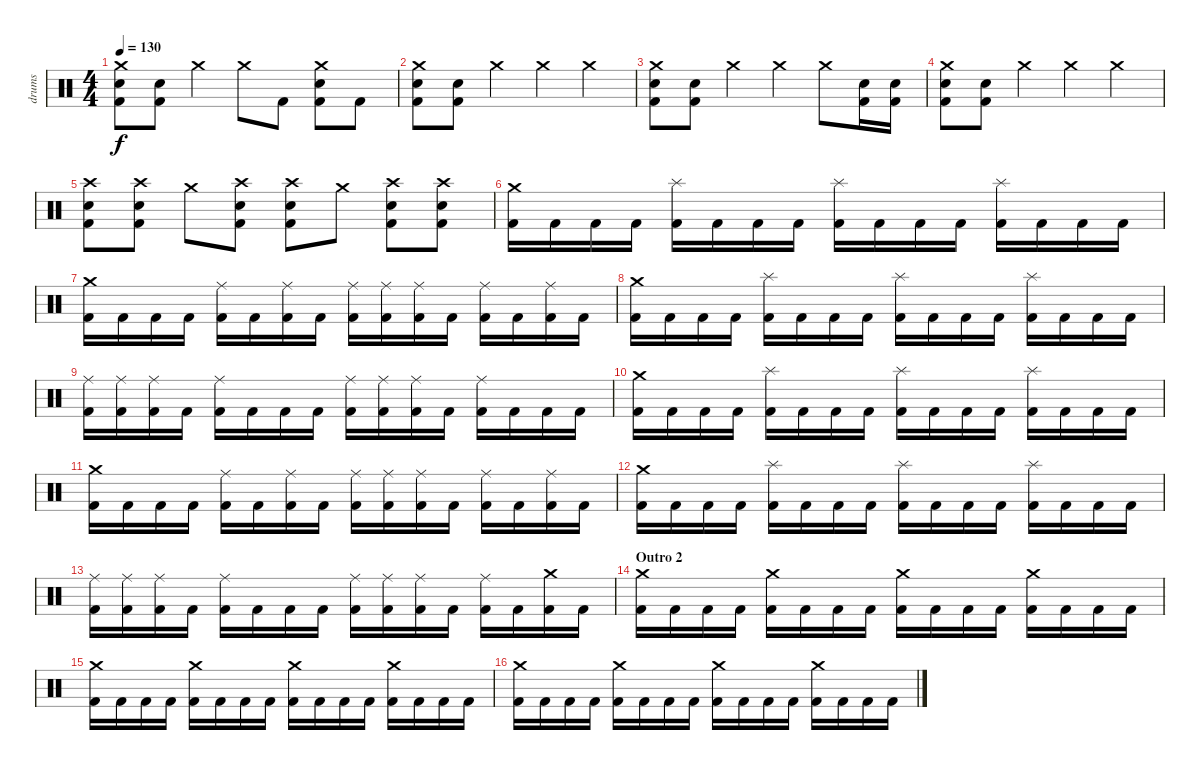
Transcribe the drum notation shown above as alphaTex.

\track ("drums" "drums") {instrument percussion}
\staff {score}
\articulation defaults
\ts (4 4)
\tempo 130
\clef neutral
\ks c
("Crash medium (hit)" "Electric Snare (hit)" "Kick (hit) 2").8{dy f} ("Electric Snare (hit)" "Kick (hit) 2").8 "Crash medium (hit)".4 "Crash medium (hit)".8 "Kick (hit) 2".8 ("Crash medium (hit)" "Electric Snare (hit)" "Kick (hit) 2").8 "Kick (hit) 2".8 |
("Crash medium (hit)" "Electric Snare (hit)" "Kick (hit) 2").8 ("Electric Snare (hit)" "Kick (hit) 2").8 "Crash medium (hit)".4 "Crash medium (hit)".4 "Crash medium (hit)".4 |
("Crash medium (hit)" "Electric Snare (hit)" "Kick (hit) 2").8 ("Electric Snare (hit)" "Kick (hit) 2").8 "Crash medium (hit)".4 "Crash medium (hit)".4 "Crash medium (hit)".8 ("Electric Snare (hit)" "Kick (hit) 2").16 ("Electric Snare (hit)" "Kick (hit) 2").16 |
("Crash medium (hit)" "Electric Snare (hit)" "Kick (hit) 2").8 ("Electric Snare (hit)" "Kick (hit) 2").8 "Crash medium (hit)".4 "Crash medium (hit)".4 "Crash medium (hit)".4 |
("Crash high (hit)" "Electric Snare (hit)" "Kick (hit) 2").8 ("Crash high (hit)" "Electric Snare (hit)" "Kick (hit) 2").8 "Crash medium (hit)".8 ("Crash high (hit)" "Electric Snare (hit)" "Kick (hit) 2").8 ("Crash high (hit)" "Electric Snare (hit)" "Kick (hit) 2").8 "Crash medium (hit)".8 ("Crash high (hit)" "Electric Snare (hit)" "Kick (hit) 2").8 ("Crash high (hit)" "Electric Snare (hit)" "Kick (hit) 2").8 |
("Crash medium (hit)" "Kick (hit) 2").16 "Kick (hit) 2".16 "Kick (hit) 2".16 "Kick (hit) 2".16 ("Splash (hit)" "Kick (hit) 2").16 "Kick (hit) 2".16 "Kick (hit) 2".16 "Kick (hit) 2".16 ("Splash (hit)" "Kick (hit) 2").16 "Kick (hit) 2".16 "Kick (hit) 2".16 "Kick (hit) 2".16 ("Splash (hit)" "Kick (hit) 2").16 "Kick (hit) 2".16 "Kick (hit) 2".16 "Kick (hit) 2".16 |
("Crash medium (hit)" "Kick (hit) 2").16 "Kick (hit) 2".16 "Kick (hit) 2".16 "Kick (hit) 2".16 ("Ride (middle)" "Kick (hit) 2").16 "Kick (hit) 2".16 ("Ride (middle)" "Kick (hit) 2").16 "Kick (hit) 2".16 ("Ride (middle)" "Kick (hit) 2").16 ("Ride (middle)" "Kick (hit) 2").16 ("Ride (middle)" "Kick (hit) 2").16 "Kick (hit) 2".16 ("Ride (middle)" "Kick (hit) 2").16 "Kick (hit) 2".16 ("Ride (middle)" "Kick (hit) 2").16 "Kick (hit) 2".16 |
("Crash medium (hit)" "Kick (hit) 2").16 "Kick (hit) 2".16 "Kick (hit) 2".16 "Kick (hit) 2".16 ("Splash (hit)" "Kick (hit) 2").16 "Kick (hit) 2".16 "Kick (hit) 2".16 "Kick (hit) 2".16 ("Splash (hit)" "Kick (hit) 2").16 "Kick (hit) 2".16 "Kick (hit) 2".16 "Kick (hit) 2".16 ("Splash (hit)" "Kick (hit) 2").16 "Kick (hit) 2".16 "Kick (hit) 2".16 "Kick (hit) 2".16 |
("Ride (middle)" "Kick (hit) 2").16 ("Ride (middle)" "Kick (hit) 2").16 ("Ride (middle)" "Kick (hit) 2").16 "Kick (hit) 2".16 ("Ride (middle)" "Kick (hit) 2").16 "Kick (hit) 2".16 "Kick (hit) 2".16 "Kick (hit) 2".16 ("Ride (middle)" "Kick (hit) 2").16 ("Ride (middle)" "Kick (hit) 2").16 ("Ride (middle)" "Kick (hit) 2").16 "Kick (hit) 2".16 ("Ride (middle)" "Kick (hit) 2").16 "Kick (hit) 2".16 "Kick (hit) 2".16 "Kick (hit) 2".16 |
("Crash medium (hit)" "Kick (hit) 2").16 "Kick (hit) 2".16 "Kick (hit) 2".16 "Kick (hit) 2".16 ("Splash (hit)" "Kick (hit) 2").16 "Kick (hit) 2".16 "Kick (hit) 2".16 "Kick (hit) 2".16 ("Splash (hit)" "Kick (hit) 2").16 "Kick (hit) 2".16 "Kick (hit) 2".16 "Kick (hit) 2".16 ("Splash (hit)" "Kick (hit) 2").16 "Kick (hit) 2".16 "Kick (hit) 2".16 "Kick (hit) 2".16 |
("Crash medium (hit)" "Kick (hit) 2").16 "Kick (hit) 2".16 "Kick (hit) 2".16 "Kick (hit) 2".16 ("Ride (middle)" "Kick (hit) 2").16 "Kick (hit) 2".16 ("Ride (middle)" "Kick (hit) 2").16 "Kick (hit) 2".16 ("Ride (middle)" "Kick (hit) 2").16 ("Ride (middle)" "Kick (hit) 2").16 ("Ride (middle)" "Kick (hit) 2").16 "Kick (hit) 2".16 ("Ride (middle)" "Kick (hit) 2").16 "Kick (hit) 2".16 ("Ride (middle)" "Kick (hit) 2").16 "Kick (hit) 2".16 |
("Crash medium (hit)" "Kick (hit) 2").16 "Kick (hit) 2".16 "Kick (hit) 2".16 "Kick (hit) 2".16 ("Splash (hit)" "Kick (hit) 2").16 "Kick (hit) 2".16 "Kick (hit) 2".16 "Kick (hit) 2".16 ("Splash (hit)" "Kick (hit) 2").16 "Kick (hit) 2".16 "Kick (hit) 2".16 "Kick (hit) 2".16 ("Splash (hit)" "Kick (hit) 2").16 "Kick (hit) 2".16 "Kick (hit) 2".16 "Kick (hit) 2".16 |
("Ride (middle)" "Kick (hit) 2").16 ("Ride (middle)" "Kick (hit) 2").16 ("Ride (middle)" "Kick (hit) 2").16 "Kick (hit) 2".16 ("Ride (middle)" "Kick (hit) 2").16 "Kick (hit) 2".16 "Kick (hit) 2".16 "Kick (hit) 2".16 ("Ride (middle)" "Kick (hit) 2").16 ("Ride (middle)" "Kick (hit) 2").16 ("Ride (middle)" "Kick (hit) 2").16 "Kick (hit) 2".16 ("Ride (middle)" "Kick (hit) 2").16 "Kick (hit) 2".16 ("Crash medium (hit)" "Kick (hit) 2").16 "Kick (hit) 2".16 |
\section ("" "Outro 2")
("Crash medium (hit)" "Kick (hit) 2").16 "Kick (hit) 2".16 "Kick (hit) 2".16 "Kick (hit) 2".16 ("Crash medium (hit)" "Kick (hit) 2").16 "Kick (hit) 2".16 "Kick (hit) 2".16 "Kick (hit) 2".16 ("Crash medium (hit)" "Kick (hit) 2").16 "Kick (hit) 2".16 "Kick (hit) 2".16 "Kick (hit) 2".16 ("Crash medium (hit)" "Kick (hit) 2").16 "Kick (hit) 2".16 "Kick (hit) 2".16 "Kick (hit) 2".16 |
("Crash medium (hit)" "Kick (hit) 2").16 "Kick (hit) 2".16 "Kick (hit) 2".16 "Kick (hit) 2".16 ("Crash medium (hit)" "Kick (hit) 2").16 "Kick (hit) 2".16 "Kick (hit) 2".16 "Kick (hit) 2".16 ("Crash medium (hit)" "Kick (hit) 2").16 "Kick (hit) 2".16 "Kick (hit) 2".16 "Kick (hit) 2".16 ("Crash medium (hit)" "Kick (hit) 2").16 "Kick (hit) 2".16 "Kick (hit) 2".16 "Kick (hit) 2".16 |
("Crash medium (hit)" "Kick (hit) 2").16 "Kick (hit) 2".16 "Kick (hit) 2".16 "Kick (hit) 2".16 ("Crash medium (hit)" "Kick (hit) 2").16 "Kick (hit) 2".16 "Kick (hit) 2".16 "Kick (hit) 2".16 ("Crash medium (hit)" "Kick (hit) 2").16 "Kick (hit) 2".16 "Kick (hit) 2".16 "Kick (hit) 2".16 ("Crash medium (hit)" "Kick (hit) 2").16 "Kick (hit) 2".16 "Kick (hit) 2".16 "Kick (hit) 2".16
